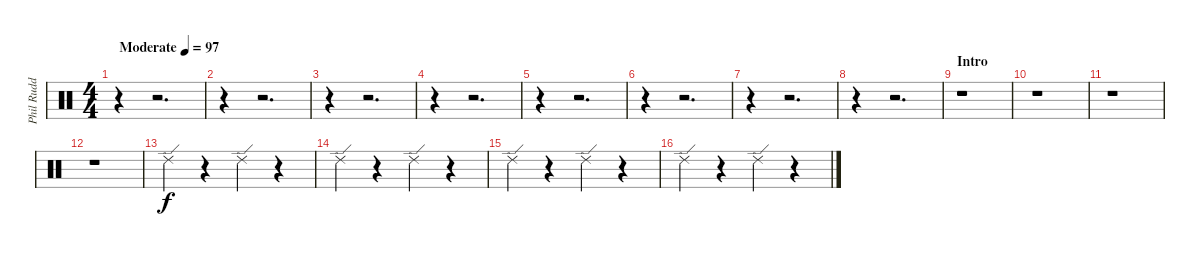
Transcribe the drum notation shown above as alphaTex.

\track ("Phil Rudd" "Phil Rudd") {instrument percussion}
\staff {score}
\articulation defaults
\ts (4 4)
\tempo (97 "Moderate")
\clef neutral
\ks c
r.4{dy f} r.2{d} |
r.4 r.2{d} |
r.4 r.2{d} |
r.4 r.2{d} |
r.4 r.2{d} |
r.4 r.2{d} |
r.4 r.2{d} |
r.4 r.2{d} |
\section ("" "Intro")
r.1 |
r.1 |
r.1 |
r.1 |
"Ride (edge) 2".4 r.4 "Ride (edge) 2".4 r.4 |
"Ride (edge) 2".4 r.4 "Ride (edge) 2".4 r.4 |
"Ride (edge) 2".4 r.4 "Ride (edge) 2".4 r.4 |
"Ride (edge) 2".4 r.4 "Ride (edge) 2".4 r.4
